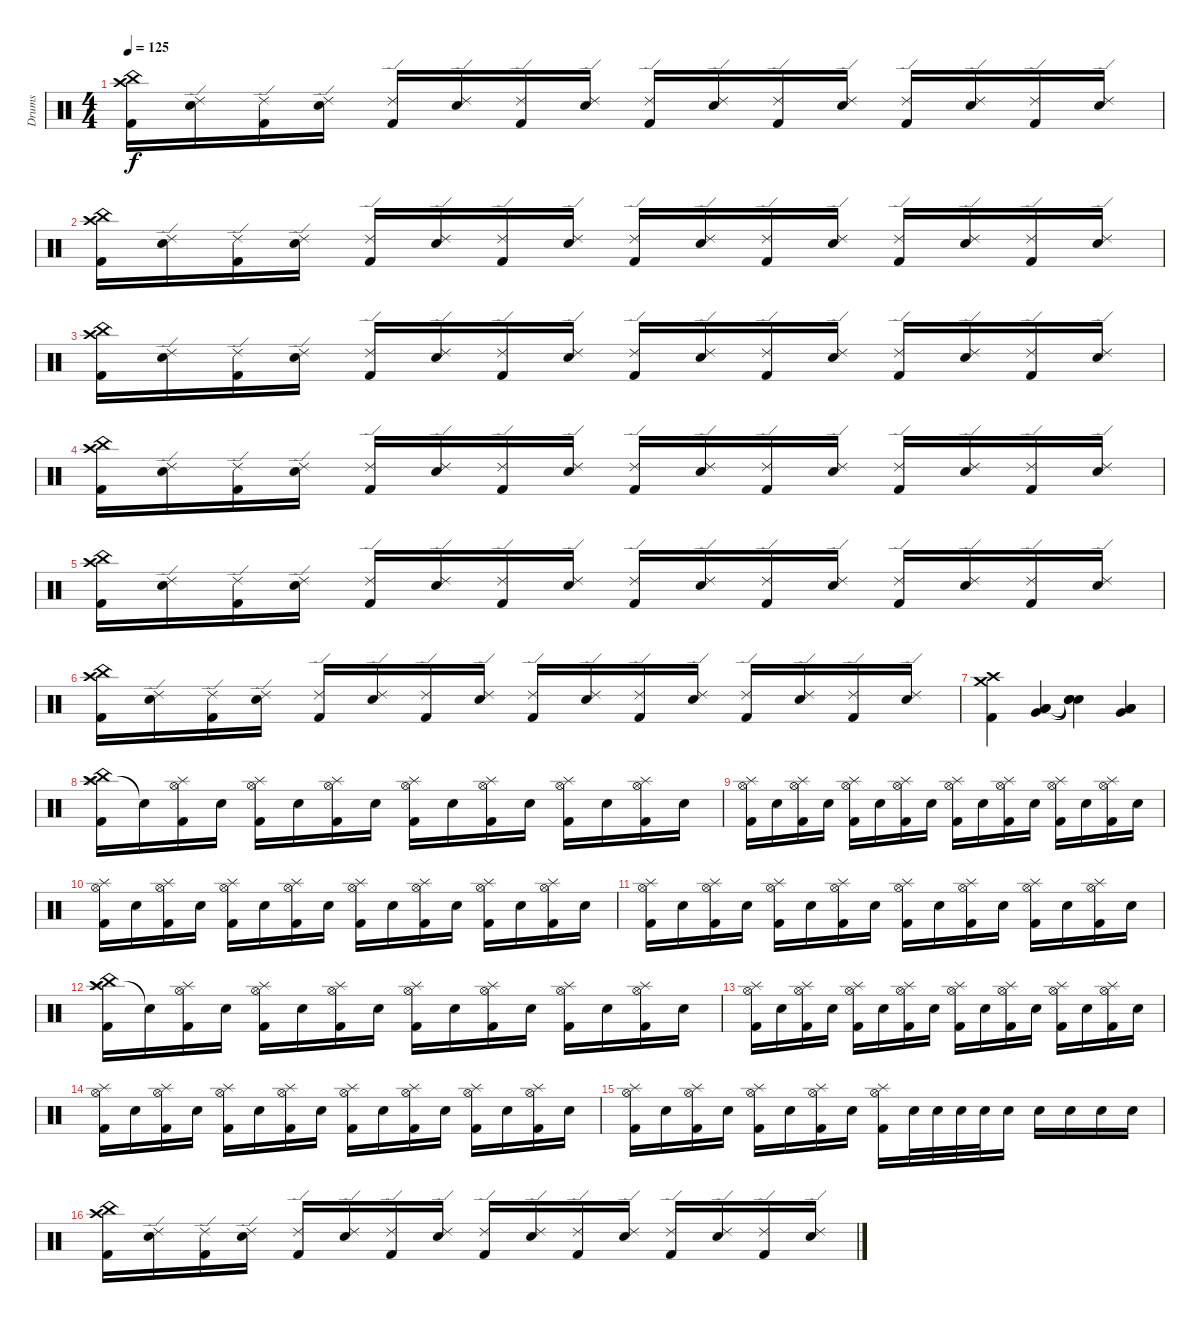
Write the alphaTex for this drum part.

\track ("Drums" "Drums") {instrument percussion}
\staff {score}
\articulation defaults
\ts (4 4)
\tempo 125
\clef neutral
\ks c
("Crash high (hit)" "China (hit)" "Kick (hit) 2").16{dy f} ("Ride (edge) 2" "Electric Snare (hit)").16 ("Ride (edge) 2" "Kick (hit) 2").16 ("Ride (edge) 2" "Electric Snare (hit)").16 ("Ride (edge) 2" "Kick (hit) 2").16 ("Ride (edge) 2" "Electric Snare (hit)").16 ("Ride (edge) 2" "Kick (hit) 2").16 ("Ride (edge) 2" "Electric Snare (hit)").16 ("Ride (edge) 2" "Kick (hit) 2").16 ("Ride (edge) 2" "Electric Snare (hit)").16 ("Ride (edge) 2" "Kick (hit) 2").16 ("Ride (edge) 2" "Electric Snare (hit)").16 ("Ride (edge) 2" "Kick (hit) 2").16 ("Ride (edge) 2" "Electric Snare (hit)").16 ("Ride (edge) 2" "Kick (hit) 2").16 ("Ride (edge) 2" "Electric Snare (hit)").16 |
("Crash high (hit)" "China (hit)" "Kick (hit) 2").16 ("Ride (edge) 2" "Electric Snare (hit)").16 ("Ride (edge) 2" "Kick (hit) 2").16 ("Ride (edge) 2" "Electric Snare (hit)").16 ("Ride (edge) 2" "Kick (hit) 2").16 ("Ride (edge) 2" "Electric Snare (hit)").16 ("Ride (edge) 2" "Kick (hit) 2").16 ("Ride (edge) 2" "Electric Snare (hit)").16 ("Ride (edge) 2" "Kick (hit) 2").16 ("Ride (edge) 2" "Electric Snare (hit)").16 ("Ride (edge) 2" "Kick (hit) 2").16 ("Ride (edge) 2" "Electric Snare (hit)").16 ("Ride (edge) 2" "Kick (hit) 2").16 ("Ride (edge) 2" "Electric Snare (hit)").16 ("Ride (edge) 2" "Kick (hit) 2").16 ("Ride (edge) 2" "Electric Snare (hit)").16 |
("Crash high (hit)" "China (hit)" "Kick (hit) 2").16 ("Ride (edge) 2" "Electric Snare (hit)").16 ("Ride (edge) 2" "Kick (hit) 2").16 ("Ride (edge) 2" "Electric Snare (hit)").16 ("Ride (edge) 2" "Kick (hit) 2").16 ("Ride (edge) 2" "Electric Snare (hit)").16 ("Ride (edge) 2" "Kick (hit) 2").16 ("Ride (edge) 2" "Electric Snare (hit)").16 ("Ride (edge) 2" "Kick (hit) 2").16 ("Ride (edge) 2" "Electric Snare (hit)").16 ("Ride (edge) 2" "Kick (hit) 2").16 ("Ride (edge) 2" "Electric Snare (hit)").16 ("Ride (edge) 2" "Kick (hit) 2").16 ("Ride (edge) 2" "Electric Snare (hit)").16 ("Ride (edge) 2" "Kick (hit) 2").16 ("Ride (edge) 2" "Electric Snare (hit)").16 |
("Crash high (hit)" "China (hit)" "Kick (hit) 2").16 ("Ride (edge) 2" "Electric Snare (hit)").16 ("Ride (edge) 2" "Kick (hit) 2").16 ("Ride (edge) 2" "Electric Snare (hit)").16 ("Ride (edge) 2" "Kick (hit) 2").16 ("Ride (edge) 2" "Electric Snare (hit)").16 ("Ride (edge) 2" "Kick (hit) 2").16 ("Ride (edge) 2" "Electric Snare (hit)").16 ("Ride (edge) 2" "Kick (hit) 2").16 ("Ride (edge) 2" "Electric Snare (hit)").16 ("Ride (edge) 2" "Kick (hit) 2").16 ("Ride (edge) 2" "Electric Snare (hit)").16 ("Ride (edge) 2" "Kick (hit) 2").16 ("Ride (edge) 2" "Electric Snare (hit)").16 ("Ride (edge) 2" "Kick (hit) 2").16 ("Ride (edge) 2" "Electric Snare (hit)").16 |
("Crash high (hit)" "China (hit)" "Kick (hit) 2").16 ("Ride (edge) 2" "Electric Snare (hit)").16 ("Ride (edge) 2" "Kick (hit) 2").16 ("Ride (edge) 2" "Electric Snare (hit)").16 ("Ride (edge) 2" "Kick (hit) 2").16 ("Ride (edge) 2" "Electric Snare (hit)").16 ("Ride (edge) 2" "Kick (hit) 2").16 ("Ride (edge) 2" "Electric Snare (hit)").16 ("Ride (edge) 2" "Kick (hit) 2").16 ("Ride (edge) 2" "Electric Snare (hit)").16 ("Ride (edge) 2" "Kick (hit) 2").16 ("Ride (edge) 2" "Electric Snare (hit)").16 ("Ride (edge) 2" "Kick (hit) 2").16 ("Ride (edge) 2" "Electric Snare (hit)").16 ("Ride (edge) 2" "Kick (hit) 2").16 ("Ride (edge) 2" "Electric Snare (hit)").16 |
("Crash high (hit)" "China (hit)" "Kick (hit) 2").16 ("Ride (edge) 2" "Electric Snare (hit)").16 ("Ride (edge) 2" "Kick (hit) 2").16 ("Ride (edge) 2" "Electric Snare (hit)").16 ("Ride (edge) 2" "Kick (hit) 2").16 ("Ride (edge) 2" "Electric Snare (hit)").16 ("Ride (edge) 2" "Kick (hit) 2").16 ("Ride (edge) 2" "Electric Snare (hit)").16 ("Ride (edge) 2" "Kick (hit) 2").16 ("Ride (edge) 2" "Electric Snare (hit)").16 ("Ride (edge) 2" "Kick (hit) 2").16 ("Ride (edge) 2" "Electric Snare (hit)").16 ("Ride (edge) 2" "Kick (hit) 2").16 ("Ride (edge) 2" "Electric Snare (hit)").16 ("Ride (edge) 2" "Kick (hit) 2").16 ("Ride (edge) 2" "Electric Snare (hit)").16 |
("Crash medium (hit)" "Crash high (hit)" "Kick (hit) 2").4 ("Low Floor Tom (hit)" "Very Low Tom (hit)" "Low Tom (hit)").4 ("Snare (hit)"{t} "Snare (hit)"{t} "Snare (hit)"{t}).4 ("Low Floor Tom (hit)" "Low Tom (hit)" "Very Low Tom (hit)").4 |
("Crash high (hit)" "China (hit)" "Splash (hit)" "Kick (hit) 2").16 "Snare (hit)"{t}.16 ("Hi-Hat (open)" "Splash (hit)" "Kick (hit) 2").16 "Electric Snare (hit)".16 ("Hi-Hat (open)" "Splash (hit)" "Kick (hit) 2").16 "Electric Snare (hit)".16 ("Hi-Hat (open)" "Splash (hit)" "Kick (hit) 2").16 "Electric Snare (hit)".16 ("Hi-Hat (open)" "Splash (hit)" "Kick (hit) 2").16 "Electric Snare (hit)".16 ("Hi-Hat (open)" "Splash (hit)" "Kick (hit) 2").16 "Electric Snare (hit)".16 ("Hi-Hat (open)" "Splash (hit)" "Kick (hit) 2").16 "Electric Snare (hit)".16 ("Hi-Hat (open)" "Splash (hit)" "Kick (hit) 2").16 "Electric Snare (hit)".16 |
("Hi-Hat (open)" "Splash (hit)" "Kick (hit) 2").16 "Electric Snare (hit)".16 ("Hi-Hat (open)" "Splash (hit)" "Kick (hit) 2").16 "Electric Snare (hit)".16 ("Hi-Hat (open)" "Splash (hit)" "Kick (hit) 2").16 "Electric Snare (hit)".16 ("Hi-Hat (open)" "Splash (hit)" "Kick (hit) 2").16 "Electric Snare (hit)".16 ("Hi-Hat (open)" "Splash (hit)" "Kick (hit) 2").16 "Electric Snare (hit)".16 ("Hi-Hat (open)" "Splash (hit)" "Kick (hit) 2").16 "Electric Snare (hit)".16 ("Hi-Hat (open)" "Splash (hit)" "Kick (hit) 2").16 "Electric Snare (hit)".16 ("Hi-Hat (open)" "Splash (hit)" "Kick (hit) 2").16 "Electric Snare (hit)".16 |
("Hi-Hat (open)" "Splash (hit)" "Kick (hit) 2").16 "Electric Snare (hit)".16 ("Hi-Hat (open)" "Splash (hit)" "Kick (hit) 2").16 "Electric Snare (hit)".16 ("Hi-Hat (open)" "Splash (hit)" "Kick (hit) 2").16 "Electric Snare (hit)".16 ("Hi-Hat (open)" "Splash (hit)" "Kick (hit) 2").16 "Electric Snare (hit)".16 ("Hi-Hat (open)" "Splash (hit)" "Kick (hit) 2").16 "Electric Snare (hit)".16 ("Hi-Hat (open)" "Splash (hit)" "Kick (hit) 2").16 "Electric Snare (hit)".16 ("Hi-Hat (open)" "Splash (hit)" "Kick (hit) 2").16 "Electric Snare (hit)".16 ("Hi-Hat (open)" "Splash (hit)" "Kick (hit) 2").16 "Electric Snare (hit)".16 |
("Hi-Hat (open)" "Splash (hit)" "Kick (hit) 2").16 "Electric Snare (hit)".16 ("Hi-Hat (open)" "Splash (hit)" "Kick (hit) 2").16 "Electric Snare (hit)".16 ("Hi-Hat (open)" "Splash (hit)" "Kick (hit) 2").16 "Electric Snare (hit)".16 ("Hi-Hat (open)" "Splash (hit)" "Kick (hit) 2").16 "Electric Snare (hit)".16 ("Hi-Hat (open)" "Splash (hit)" "Kick (hit) 2").16 "Electric Snare (hit)".16 ("Hi-Hat (open)" "Splash (hit)" "Kick (hit) 2").16 "Electric Snare (hit)".16 ("Hi-Hat (open)" "Splash (hit)" "Kick (hit) 2").16 "Electric Snare (hit)".16 ("Hi-Hat (open)" "Splash (hit)" "Kick (hit) 2").16 "Electric Snare (hit)".16 |
("Crash high (hit)" "China (hit)" "Splash (hit)" "Kick (hit) 2").16 "Snare (hit)"{t}.16 ("Hi-Hat (open)" "Splash (hit)" "Kick (hit) 2").16 "Electric Snare (hit)".16 ("Hi-Hat (open)" "Splash (hit)" "Kick (hit) 2").16 "Electric Snare (hit)".16 ("Hi-Hat (open)" "Splash (hit)" "Kick (hit) 2").16 "Electric Snare (hit)".16 ("Hi-Hat (open)" "Splash (hit)" "Kick (hit) 2").16 "Electric Snare (hit)".16 ("Hi-Hat (open)" "Splash (hit)" "Kick (hit) 2").16 "Electric Snare (hit)".16 ("Hi-Hat (open)" "Splash (hit)" "Kick (hit) 2").16 "Electric Snare (hit)".16 ("Hi-Hat (open)" "Splash (hit)" "Kick (hit) 2").16 "Electric Snare (hit)".16 |
("Hi-Hat (open)" "Splash (hit)" "Kick (hit) 2").16 "Electric Snare (hit)".16 ("Hi-Hat (open)" "Splash (hit)" "Kick (hit) 2").16 "Electric Snare (hit)".16 ("Hi-Hat (open)" "Splash (hit)" "Kick (hit) 2").16 "Electric Snare (hit)".16 ("Hi-Hat (open)" "Splash (hit)" "Kick (hit) 2").16 "Electric Snare (hit)".16 ("Hi-Hat (open)" "Splash (hit)" "Kick (hit) 2").16 "Electric Snare (hit)".16 ("Hi-Hat (open)" "Splash (hit)" "Kick (hit) 2").16 "Electric Snare (hit)".16 ("Hi-Hat (open)" "Splash (hit)" "Kick (hit) 2").16 "Electric Snare (hit)".16 ("Hi-Hat (open)" "Splash (hit)" "Kick (hit) 2").16 "Electric Snare (hit)".16 |
("Hi-Hat (open)" "Splash (hit)" "Kick (hit) 2").16 "Electric Snare (hit)".16 ("Hi-Hat (open)" "Splash (hit)" "Kick (hit) 2").16 "Electric Snare (hit)".16 ("Hi-Hat (open)" "Splash (hit)" "Kick (hit) 2").16 "Electric Snare (hit)".16 ("Hi-Hat (open)" "Splash (hit)" "Kick (hit) 2").16 "Electric Snare (hit)".16 ("Hi-Hat (open)" "Splash (hit)" "Kick (hit) 2").16 "Electric Snare (hit)".16 ("Hi-Hat (open)" "Splash (hit)" "Kick (hit) 2").16 "Electric Snare (hit)".16 ("Hi-Hat (open)" "Splash (hit)" "Kick (hit) 2").16 "Electric Snare (hit)".16 ("Hi-Hat (open)" "Splash (hit)" "Kick (hit) 2").16 "Electric Snare (hit)".16 |
("Hi-Hat (open)" "Splash (hit)" "Kick (hit) 2").16 "Electric Snare (hit)".16 ("Hi-Hat (open)" "Splash (hit)" "Kick (hit) 2").16 "Electric Snare (hit)".16 ("Hi-Hat (open)" "Splash (hit)" "Kick (hit) 2").16 "Electric Snare (hit)".16 ("Hi-Hat (open)" "Splash (hit)" "Kick (hit) 2").16 "Electric Snare (hit)".16 ("Hi-Hat (open)" "Splash (hit)" "Kick (hit) 2").16 "Electric Snare (hit)".32 "Electric Snare (hit)".32 "Electric Snare (hit)".32 "Electric Snare (hit)".32 "Electric Snare (hit)".16 "Electric Snare (hit)".16 "Electric Snare (hit)".16 "Electric Snare (hit)".16 "Electric Snare (hit)".16 |
("Crash high (hit)" "China (hit)" "Kick (hit) 2").16 ("Ride (edge) 2" "Electric Snare (hit)").16 ("Ride (edge) 2" "Kick (hit) 2").16 ("Ride (edge) 2" "Electric Snare (hit)").16 ("Ride (edge) 2" "Kick (hit) 2").16 ("Ride (edge) 2" "Electric Snare (hit)").16 ("Ride (edge) 2" "Kick (hit) 2").16 ("Ride (edge) 2" "Electric Snare (hit)").16 ("Ride (edge) 2" "Kick (hit) 2").16 ("Ride (edge) 2" "Electric Snare (hit)").16 ("Ride (edge) 2" "Kick (hit) 2").16 ("Ride (edge) 2" "Electric Snare (hit)").16 ("Ride (edge) 2" "Kick (hit) 2").16 ("Ride (edge) 2" "Electric Snare (hit)").16 ("Ride (edge) 2" "Kick (hit) 2").16 ("Ride (edge) 2" "Electric Snare (hit)").16
